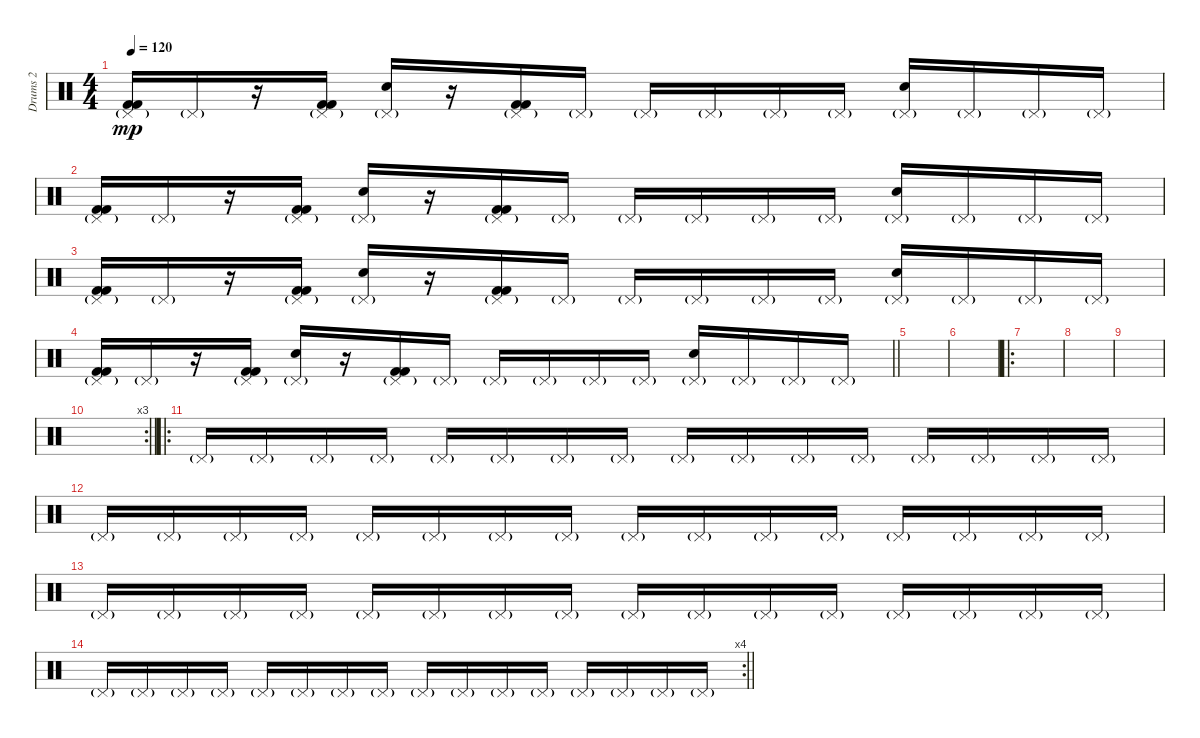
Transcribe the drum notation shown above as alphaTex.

\track ("Drums 2" "Drums 2") {instrument percussion}
\staff {score}
\articulation defaults
\ts (4 4)
\tempo 120
\clef neutral
\ks c
("Pedal Hi-Hat (hit)"{g} "Kick (hit) 2" "Kick (hit) 2").16{dy mp} "Pedal Hi-Hat (hit)"{g}.16 r.16 ("Pedal Hi-Hat (hit)"{g} "Kick (hit) 2" "Kick (hit) 2").16 ("Pedal Hi-Hat (hit)"{g} "Snare (hit) 2").16 r.16 ("Pedal Hi-Hat (hit)"{g} "Kick (hit) 2" "Kick (hit) 2").16 "Pedal Hi-Hat (hit)"{g}.16 "Pedal Hi-Hat (hit)"{g}.16 "Pedal Hi-Hat (hit)"{g}.16 "Pedal Hi-Hat (hit)"{g}.16 "Pedal Hi-Hat (hit)"{g}.16 ("Pedal Hi-Hat (hit)"{g} "Snare (hit) 2").16 "Pedal Hi-Hat (hit)"{g}.16 "Pedal Hi-Hat (hit)"{g}.16 "Pedal Hi-Hat (hit)"{g}.16 |
("Pedal Hi-Hat (hit)"{g} "Kick (hit) 2" "Kick (hit) 2").16 "Pedal Hi-Hat (hit)"{g}.16 r.16 ("Pedal Hi-Hat (hit)"{g} "Kick (hit) 2" "Kick (hit) 2").16 ("Pedal Hi-Hat (hit)"{g} "Snare (hit) 2").16 r.16 ("Pedal Hi-Hat (hit)"{g} "Kick (hit) 2" "Kick (hit) 2").16 "Pedal Hi-Hat (hit)"{g}.16 "Pedal Hi-Hat (hit)"{g}.16 "Pedal Hi-Hat (hit)"{g}.16 "Pedal Hi-Hat (hit)"{g}.16 "Pedal Hi-Hat (hit)"{g}.16 ("Pedal Hi-Hat (hit)"{g} "Snare (hit) 2").16 "Pedal Hi-Hat (hit)"{g}.16 "Pedal Hi-Hat (hit)"{g}.16 "Pedal Hi-Hat (hit)"{g}.16 |
("Pedal Hi-Hat (hit)"{g} "Kick (hit) 2" "Kick (hit) 2").16 "Pedal Hi-Hat (hit)"{g}.16 r.16 ("Pedal Hi-Hat (hit)"{g} "Kick (hit) 2" "Kick (hit) 2").16 ("Pedal Hi-Hat (hit)"{g} "Snare (hit) 2").16 r.16 ("Pedal Hi-Hat (hit)"{g} "Kick (hit) 2" "Kick (hit) 2").16 "Pedal Hi-Hat (hit)"{g}.16 "Pedal Hi-Hat (hit)"{g}.16 "Pedal Hi-Hat (hit)"{g}.16 "Pedal Hi-Hat (hit)"{g}.16 "Pedal Hi-Hat (hit)"{g}.16 ("Pedal Hi-Hat (hit)"{g} "Snare (hit) 2").16 "Pedal Hi-Hat (hit)"{g}.16 "Pedal Hi-Hat (hit)"{g}.16 "Pedal Hi-Hat (hit)"{g}.16 |
\barLineRight lightlight
("Pedal Hi-Hat (hit)"{g} "Kick (hit) 2" "Kick (hit) 2").16 "Pedal Hi-Hat (hit)"{g}.16 r.16 ("Pedal Hi-Hat (hit)"{g} "Kick (hit) 2" "Kick (hit) 2").16 ("Pedal Hi-Hat (hit)"{g} "Snare (hit) 2").16 r.16 ("Pedal Hi-Hat (hit)"{g} "Kick (hit) 2" "Kick (hit) 2").16 "Pedal Hi-Hat (hit)"{g}.16 "Pedal Hi-Hat (hit)"{g}.16 "Pedal Hi-Hat (hit)"{g}.16 "Pedal Hi-Hat (hit)"{g}.16 "Pedal Hi-Hat (hit)"{g}.16 ("Pedal Hi-Hat (hit)"{g} "Snare (hit) 2").16 "Pedal Hi-Hat (hit)"{g}.16 "Pedal Hi-Hat (hit)"{g}.16 "Pedal Hi-Hat (hit)"{g}.16 |
|
|
\ro
|
|
|
\rc 3
\barLineRight lightlight
|
\ro "Pedal Hi-Hat (hit)"{g}.16 "Pedal Hi-Hat (hit)"{g}.16 "Pedal Hi-Hat (hit)"{g}.16 "Pedal Hi-Hat (hit)"{g}.16 "Pedal Hi-Hat (hit)"{g}.16 "Pedal Hi-Hat (hit)"{g}.16 "Pedal Hi-Hat (hit)"{g}.16 "Pedal Hi-Hat (hit)"{g}.16 "Pedal Hi-Hat (hit)"{g}.16 "Pedal Hi-Hat (hit)"{g}.16 "Pedal Hi-Hat (hit)"{g}.16 "Pedal Hi-Hat (hit)"{g}.16 "Pedal Hi-Hat (hit)"{g}.16 "Pedal Hi-Hat (hit)"{g}.16 "Pedal Hi-Hat (hit)"{g}.16 "Pedal Hi-Hat (hit)"{g}.16
|
"Pedal Hi-Hat (hit)"{g}.16 "Pedal Hi-Hat (hit)"{g}.16 "Pedal Hi-Hat (hit)"{g}.16 "Pedal Hi-Hat (hit)"{g}.16 "Pedal Hi-Hat (hit)"{g}.16 "Pedal Hi-Hat (hit)"{g}.16 "Pedal Hi-Hat (hit)"{g}.16 "Pedal Hi-Hat (hit)"{g}.16 "Pedal Hi-Hat (hit)"{g}.16 "Pedal Hi-Hat (hit)"{g}.16 "Pedal Hi-Hat (hit)"{g}.16 "Pedal Hi-Hat (hit)"{g}.16 "Pedal Hi-Hat (hit)"{g}.16 "Pedal Hi-Hat (hit)"{g}.16 "Pedal Hi-Hat (hit)"{g}.16 "Pedal Hi-Hat (hit)"{g}.16 |
"Pedal Hi-Hat (hit)"{g}.16 "Pedal Hi-Hat (hit)"{g}.16 "Pedal Hi-Hat (hit)"{g}.16 "Pedal Hi-Hat (hit)"{g}.16 "Pedal Hi-Hat (hit)"{g}.16 "Pedal Hi-Hat (hit)"{g}.16 "Pedal Hi-Hat (hit)"{g}.16 "Pedal Hi-Hat (hit)"{g}.16 "Pedal Hi-Hat (hit)"{g}.16 "Pedal Hi-Hat (hit)"{g}.16 "Pedal Hi-Hat (hit)"{g}.16 "Pedal Hi-Hat (hit)"{g}.16 "Pedal Hi-Hat (hit)"{g}.16 "Pedal Hi-Hat (hit)"{g}.16 "Pedal Hi-Hat (hit)"{g}.16 "Pedal Hi-Hat (hit)"{g}.16 |
\rc 4
\barLineRight lightlight "Pedal Hi-Hat (hit)"{g}.16 "Pedal Hi-Hat (hit)"{g}.16 "Pedal Hi-Hat (hit)"{g}.16 "Pedal Hi-Hat (hit)"{g}.16 "Pedal Hi-Hat (hit)"{g}.16 "Pedal Hi-Hat (hit)"{g}.16 "Pedal Hi-Hat (hit)"{g}.16 "Pedal Hi-Hat (hit)"{g}.16 "Pedal Hi-Hat (hit)"{g}.16 "Pedal Hi-Hat (hit)"{g}.16 "Pedal Hi-Hat (hit)"{g}.16 "Pedal Hi-Hat (hit)"{g}.16 "Pedal Hi-Hat (hit)"{g}.16 "Pedal Hi-Hat (hit)"{g}.16 "Pedal Hi-Hat (hit)"{g}.16 "Pedal Hi-Hat (hit)"{g}.16
